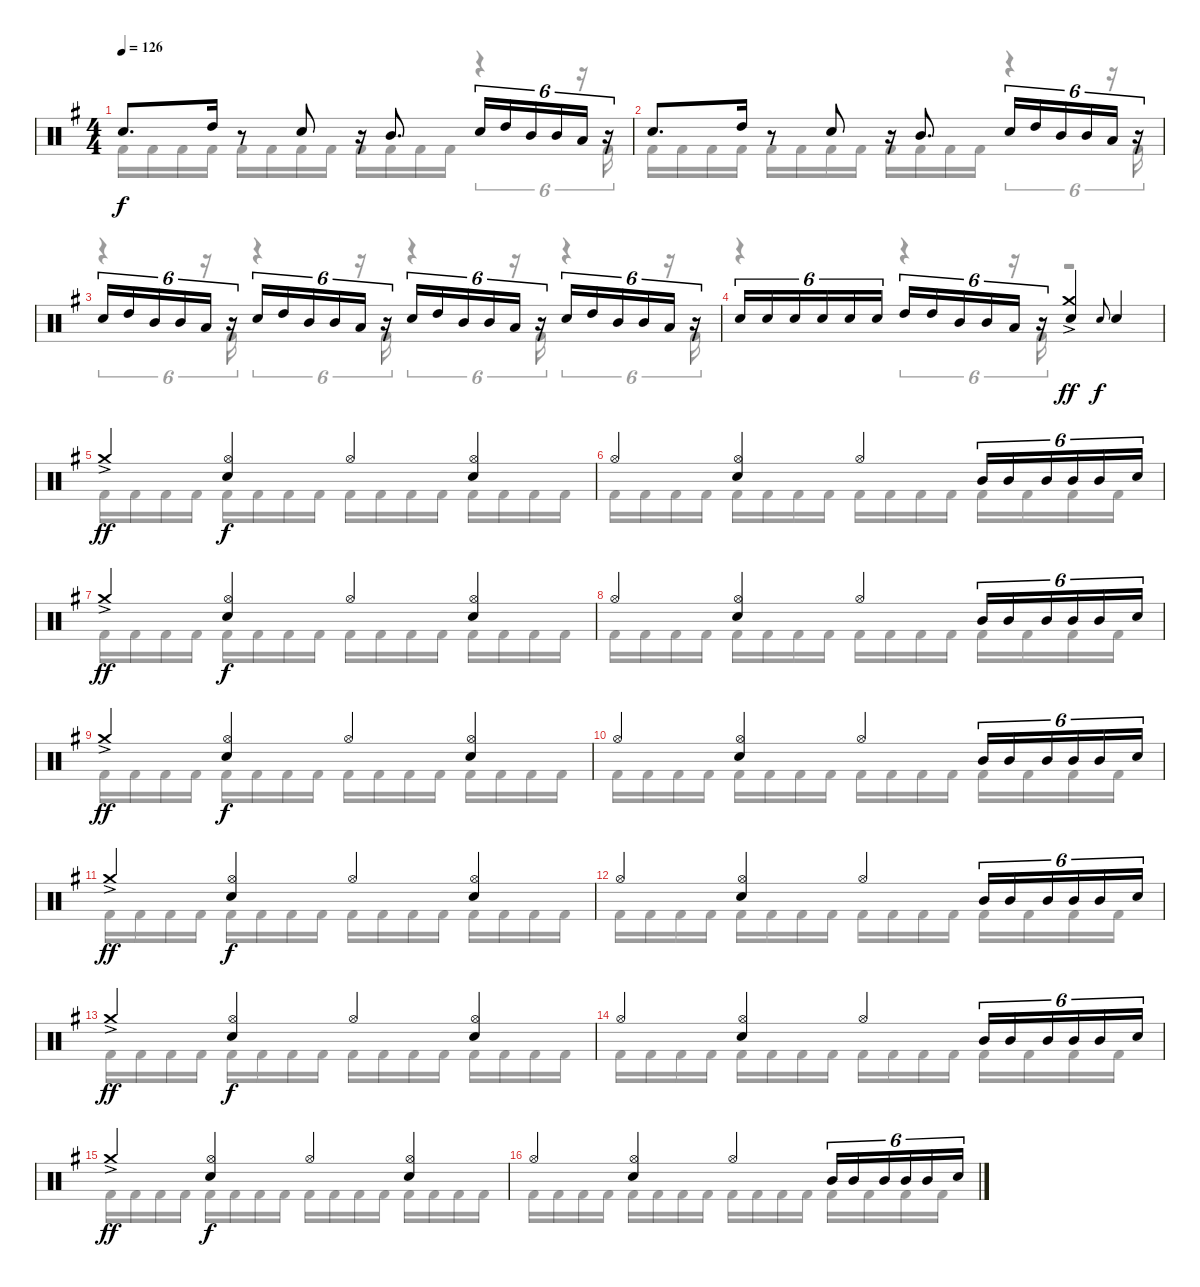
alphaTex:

\track "" {instrument percussion}
\staff {score}
\articulation defaults
\voice
\ts (4 4)
\tempo 126
\clef neutral
\ks g "Electric Snare (hit)".8{d dy f} "High Tom (hit)".16
r.8 "Electric Snare (hit)".8 r.16 "Mid Tom (hit)".8{d} "Electric Snare (hit)".16{tu (6 4)} "High Tom (hit)".16{tu (6 4)} "Mid Tom (hit)".16{tu (6 4)} "Mid Tom (hit)".16{tu (6 4)} "Low Tom (hit)".16{tu (6 4)} r.16{tu (6 4)} |
"Electric Snare (hit)".8{d} "High Tom (hit)".16 r.8 "Electric Snare (hit)".8 r.16 "Mid Tom (hit)".8{d} "Electric Snare (hit)".16{tu (6 4)} "High Tom (hit)".16{tu (6 4)} "Mid Tom (hit)".16{tu (6 4)} "Mid Tom (hit)".16{tu (6 4)} "Low Tom (hit)".16{tu (6 4)} r.16{tu (6 4)} |
"Electric Snare (hit)".16{tu (6 4)} "High Tom (hit)".16{tu (6 4)} "Mid Tom (hit)".16{tu (6 4)} "Mid Tom (hit)".16{tu (6 4)} "Low Tom (hit)".16{tu (6 4)} r.16{tu (6 4)} "Electric Snare (hit)".16{tu (6 4)} "High Tom (hit)".16{tu (6 4)} "Mid Tom (hit)".16{tu (6 4)} "Mid Tom (hit)".16{tu (6 4)} "Low Tom (hit)".16{tu (6 4)} r.16{tu (6 4)} "Electric Snare (hit)".16{tu (6 4)} "High Tom (hit)".16{tu (6 4)} "Mid Tom (hit)".16{tu (6 4)} "Mid Tom (hit)".16{tu (6 4)} "Low Tom (hit)".16{tu (6 4)} r.16{tu (6 4)} "Electric Snare (hit)".16{tu (6 4)} "High Tom (hit)".16{tu (6 4)} "Mid Tom (hit)".16{tu (6 4)} "Mid Tom (hit)".16{tu (6 4)} "Low Tom (hit)".16{tu (6 4)} r.16{tu (6 4)} |
"Electric Snare (hit)".16{tu (6 4)} "Electric Snare (hit)".16{tu (6 4)} "Electric Snare (hit)".16{tu (6 4)} "Electric Snare (hit)".16{tu (6 4)} "Electric Snare (hit)".16{tu (6 4)} "Electric Snare (hit)".16{tu (6 4)} "High Tom (hit)".16{tu (6 4)} "High Tom (hit)".16{tu (6 4)} "Mid Tom (hit)".16{tu (6 4)} "Mid Tom (hit)".16{tu (6 4)} "Low Tom (hit)".16{tu (6 4)} r.16{tu (6 4)} ("Electric Snare (hit)" "Crash medium (hit)"{ac}).4{dy ff} "Electric Snare (hit)".8{gr onbeat dy f} "Electric Snare (hit)".4 |
"Crash medium (hit)"{ac}.4{dy ff} ("Electric Snare (hit)" "Hi-Hat (open)").4{dy f} "Hi-Hat (open)".4 ("Electric Snare (hit)" "Hi-Hat (open)").4 |
"Hi-Hat (open)".4 ("Electric Snare (hit)" "Hi-Hat (open)").4 "Hi-Hat (open)".4 "Mid Tom (hit)".16{tu (6 4)} "Mid Tom (hit)".16{tu (6 4)} "Mid Tom (hit)".16{tu (6 4)} "Mid Tom (hit)".16{tu (6 4)} "Mid Tom (hit)".16{tu (6 4)} "Electric Snare (hit)".16{tu (6 4)} |
"Crash medium (hit)"{ac}.4{dy ff} ("Electric Snare (hit)" "Hi-Hat (open)").4{dy f} "Hi-Hat (open)".4 ("Electric Snare (hit)" "Hi-Hat (open)").4 |
"Hi-Hat (open)".4 ("Electric Snare (hit)" "Hi-Hat (open)").4 "Hi-Hat (open)".4 "Mid Tom (hit)".16{tu (6 4)} "Mid Tom (hit)".16{tu (6 4)} "Mid Tom (hit)".16{tu (6 4)} "Mid Tom (hit)".16{tu (6 4)} "Mid Tom (hit)".16{tu (6 4)} "Electric Snare (hit)".16{tu (6 4)} |
"Crash medium (hit)"{ac}.4{dy ff} ("Electric Snare (hit)" "Hi-Hat (open)").4{dy f} "Hi-Hat (open)".4 ("Electric Snare (hit)" "Hi-Hat (open)").4 |
"Hi-Hat (open)".4 ("Electric Snare (hit)" "Hi-Hat (open)").4 "Hi-Hat (open)".4 "Mid Tom (hit)".16{tu (6 4)} "Mid Tom (hit)".16{tu (6 4)} "Mid Tom (hit)".16{tu (6 4)} "Mid Tom (hit)".16{tu (6 4)} "Mid Tom (hit)".16{tu (6 4)} "Electric Snare (hit)".16{tu (6 4)} |
"Crash medium (hit)"{ac}.4{dy ff} ("Electric Snare (hit)" "Hi-Hat (open)").4{dy f} "Hi-Hat (open)".4 ("Electric Snare (hit)" "Hi-Hat (open)").4 |
"Hi-Hat (open)".4 ("Electric Snare (hit)" "Hi-Hat (open)").4 "Hi-Hat (open)".4 "Mid Tom (hit)".16{tu (6 4)} "Mid Tom (hit)".16{tu (6 4)} "Mid Tom (hit)".16{tu (6 4)} "Mid Tom (hit)".16{tu (6 4)} "Mid Tom (hit)".16{tu (6 4)} "Electric Snare (hit)".16{tu (6 4)} |
"Crash medium (hit)"{ac}.4{dy ff} ("Electric Snare (hit)" "Hi-Hat (open)").4{dy f} "Hi-Hat (open)".4 ("Electric Snare (hit)" "Hi-Hat (open)").4 |
"Hi-Hat (open)".4 ("Electric Snare (hit)" "Hi-Hat (open)").4 "Hi-Hat (open)".4 "Mid Tom (hit)".16{tu (6 4)} "Mid Tom (hit)".16{tu (6 4)} "Mid Tom (hit)".16{tu (6 4)} "Mid Tom (hit)".16{tu (6 4)} "Mid Tom (hit)".16{tu (6 4)} "Electric Snare (hit)".16{tu (6 4)} |
"Crash medium (hit)"{ac}.4{dy ff} ("Electric Snare (hit)" "Hi-Hat (open)").4{dy f} "Hi-Hat (open)".4 ("Electric Snare (hit)" "Hi-Hat (open)").4 |
"Hi-Hat (open)".4 ("Electric Snare (hit)" "Hi-Hat (open)").4 "Hi-Hat (open)".4 "Mid Tom (hit)".16{tu (6 4)} "Mid Tom (hit)".16{tu (6 4)} "Mid Tom (hit)".16{tu (6 4)} "Mid Tom (hit)".16{tu (6 4)} "Mid Tom (hit)".16{tu (6 4)} "Electric Snare (hit)".16{tu (6 4)}
\voice
\clef neutral
\ottava regular
\simile none
\ks g "Kick (hit) 2".16{dy f} "Kick (hit) 2".16 "Kick (hit) 2".16 "Kick (hit) 2".16 "Kick (hit) 2".16 "Kick (hit) 2".16 "Kick (hit) 2".16 "Kick (hit) 2".16 "Kick (hit) 2".16 "Kick (hit) 2".16 "Kick (hit) 2".16 "Kick (hit) 2".16
r.4{tu (6 4)} r.16{tu (6 4)} "Kick (hit) 2".16{tu (6 4)} |
"Kick (hit) 2".16 "Kick (hit) 2".16 "Kick (hit) 2".16 "Kick (hit) 2".16 "Kick (hit) 2".16 "Kick (hit) 2".16 "Kick (hit) 2".16 "Kick (hit) 2".16 "Kick (hit) 2".16 "Kick (hit) 2".16 "Kick (hit) 2".16 "Kick (hit) 2".16 r.4{tu (6 4)} r.16{tu (6 4)} "Kick (hit) 2".16{tu (6 4)} |
r.4{tu (6 4)} r.16{tu (6 4)} "Kick (hit) 2".16{tu (6 4)} r.4{tu (6 4)} r.16{tu (6 4)} "Kick (hit) 2".16{tu (6 4)} r.4{tu (6 4)} r.16{tu (6 4)} "Kick (hit) 2".16{tu (6 4)} r.4{tu (6 4)} r.16{tu (6 4)} "Kick (hit) 2".16{tu (6 4)} |
r.4 r.4{tu (6 4)} r.16{tu (6 4)} "Kick (hit) 2".16{tu (6 4)} r.2 |
"Kick (hit) 2".16 "Kick (hit) 2".16 "Kick (hit) 2".16 "Kick (hit) 2".16 "Kick (hit) 2".16 "Kick (hit) 2".16 "Kick (hit) 2".16 "Kick (hit) 2".16 "Kick (hit) 2".16 "Kick (hit) 2".16 "Kick (hit) 2".16 "Kick (hit) 2".16 "Kick (hit) 2".16 "Kick (hit) 2".16 "Kick (hit) 2".16 "Kick (hit) 2".16 |
"Kick (hit) 2".16 "Kick (hit) 2".16 "Kick (hit) 2".16 "Kick (hit) 2".16 "Kick (hit) 2".16 "Kick (hit) 2".16 "Kick (hit) 2".16 "Kick (hit) 2".16 "Kick (hit) 2".16 "Kick (hit) 2".16 "Kick (hit) 2".16 "Kick (hit) 2".16 "Kick (hit) 2".16 "Kick (hit) 2".16 "Kick (hit) 2".16 "Kick (hit) 2".16 |
"Kick (hit) 2".16 "Kick (hit) 2".16 "Kick (hit) 2".16 "Kick (hit) 2".16 "Kick (hit) 2".16 "Kick (hit) 2".16 "Kick (hit) 2".16 "Kick (hit) 2".16 "Kick (hit) 2".16 "Kick (hit) 2".16 "Kick (hit) 2".16 "Kick (hit) 2".16 "Kick (hit) 2".16 "Kick (hit) 2".16 "Kick (hit) 2".16 "Kick (hit) 2".16 |
"Kick (hit) 2".16 "Kick (hit) 2".16 "Kick (hit) 2".16 "Kick (hit) 2".16 "Kick (hit) 2".16 "Kick (hit) 2".16 "Kick (hit) 2".16 "Kick (hit) 2".16 "Kick (hit) 2".16 "Kick (hit) 2".16 "Kick (hit) 2".16 "Kick (hit) 2".16 "Kick (hit) 2".16 "Kick (hit) 2".16 "Kick (hit) 2".16 "Kick (hit) 2".16 |
"Kick (hit) 2".16 "Kick (hit) 2".16 "Kick (hit) 2".16 "Kick (hit) 2".16 "Kick (hit) 2".16 "Kick (hit) 2".16 "Kick (hit) 2".16 "Kick (hit) 2".16 "Kick (hit) 2".16 "Kick (hit) 2".16 "Kick (hit) 2".16 "Kick (hit) 2".16 "Kick (hit) 2".16 "Kick (hit) 2".16 "Kick (hit) 2".16 "Kick (hit) 2".16 |
"Kick (hit) 2".16 "Kick (hit) 2".16 "Kick (hit) 2".16 "Kick (hit) 2".16 "Kick (hit) 2".16 "Kick (hit) 2".16 "Kick (hit) 2".16 "Kick (hit) 2".16 "Kick (hit) 2".16 "Kick (hit) 2".16 "Kick (hit) 2".16 "Kick (hit) 2".16 "Kick (hit) 2".16 "Kick (hit) 2".16 "Kick (hit) 2".16 "Kick (hit) 2".16 |
"Kick (hit) 2".16 "Kick (hit) 2".16 "Kick (hit) 2".16 "Kick (hit) 2".16 "Kick (hit) 2".16 "Kick (hit) 2".16 "Kick (hit) 2".16 "Kick (hit) 2".16 "Kick (hit) 2".16 "Kick (hit) 2".16 "Kick (hit) 2".16 "Kick (hit) 2".16 "Kick (hit) 2".16 "Kick (hit) 2".16 "Kick (hit) 2".16 "Kick (hit) 2".16 |
"Kick (hit) 2".16 "Kick (hit) 2".16 "Kick (hit) 2".16 "Kick (hit) 2".16 "Kick (hit) 2".16 "Kick (hit) 2".16 "Kick (hit) 2".16 "Kick (hit) 2".16 "Kick (hit) 2".16 "Kick (hit) 2".16 "Kick (hit) 2".16 "Kick (hit) 2".16 "Kick (hit) 2".16 "Kick (hit) 2".16 "Kick (hit) 2".16 "Kick (hit) 2".16 |
"Kick (hit) 2".16 "Kick (hit) 2".16 "Kick (hit) 2".16 "Kick (hit) 2".16 "Kick (hit) 2".16 "Kick (hit) 2".16 "Kick (hit) 2".16 "Kick (hit) 2".16 "Kick (hit) 2".16 "Kick (hit) 2".16 "Kick (hit) 2".16 "Kick (hit) 2".16 "Kick (hit) 2".16 "Kick (hit) 2".16 "Kick (hit) 2".16 "Kick (hit) 2".16 |
"Kick (hit) 2".16 "Kick (hit) 2".16 "Kick (hit) 2".16 "Kick (hit) 2".16 "Kick (hit) 2".16 "Kick (hit) 2".16 "Kick (hit) 2".16 "Kick (hit) 2".16 "Kick (hit) 2".16 "Kick (hit) 2".16 "Kick (hit) 2".16 "Kick (hit) 2".16 "Kick (hit) 2".16 "Kick (hit) 2".16 "Kick (hit) 2".16 "Kick (hit) 2".16 |
"Kick (hit) 2".16 "Kick (hit) 2".16 "Kick (hit) 2".16 "Kick (hit) 2".16 "Kick (hit) 2".16 "Kick (hit) 2".16 "Kick (hit) 2".16 "Kick (hit) 2".16 "Kick (hit) 2".16 "Kick (hit) 2".16 "Kick (hit) 2".16 "Kick (hit) 2".16 "Kick (hit) 2".16 "Kick (hit) 2".16 "Kick (hit) 2".16 "Kick (hit) 2".16 |
"Kick (hit) 2".16 "Kick (hit) 2".16 "Kick (hit) 2".16 "Kick (hit) 2".16 "Kick (hit) 2".16 "Kick (hit) 2".16 "Kick (hit) 2".16 "Kick (hit) 2".16 "Kick (hit) 2".16 "Kick (hit) 2".16 "Kick (hit) 2".16 "Kick (hit) 2".16 "Kick (hit) 2".16 "Kick (hit) 2".16 "Kick (hit) 2".16 "Kick (hit) 2".16
